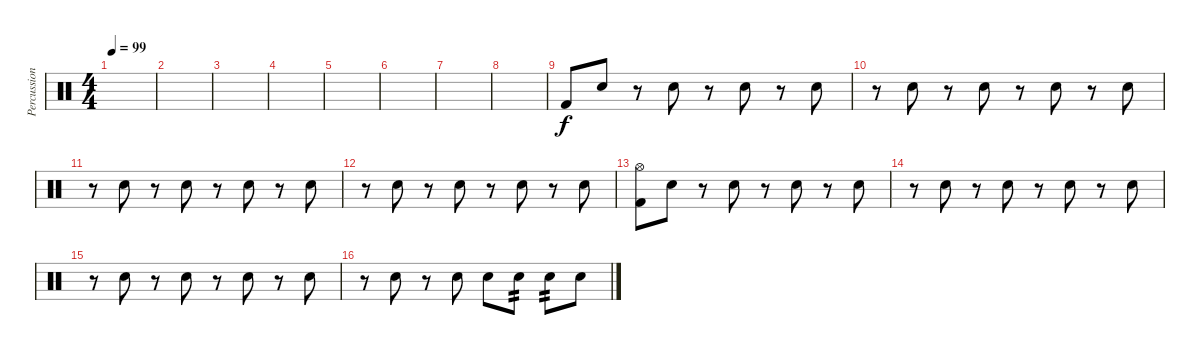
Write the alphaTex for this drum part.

\track ("Percussion" "Percussion") {instrument percussion}
\staff {score}
\articulation defaults
\ts (4 4)
\tempo 99
\clef neutral
\ks c
|
|
|
|
|
|
|
|
"Kick (hit) 2".8 "Electric Snare (hit)".8 r.8 "Electric Snare (hit)".8 r.8 "Electric Snare (hit)".8 r.8 "Electric Snare (hit)".8 |
r.8 "Electric Snare (hit)".8 r.8 "Electric Snare (hit)".8 r.8 "Electric Snare (hit)".8 r.8 "Electric Snare (hit)".8 |
r.8 "Electric Snare (hit)".8 r.8 "Electric Snare (hit)".8 r.8 "Electric Snare (hit)".8 r.8 "Electric Snare (hit)".8 |
r.8 "Electric Snare (hit)".8 r.8 "Electric Snare (hit)".8 r.8 "Electric Snare (hit)".8 r.8 "Electric Snare (hit)".8 |
("Hi-Hat (open)" "Kick (hit) 2").8 "Electric Snare (hit)".8 r.8 "Electric Snare (hit)".8 r.8 "Electric Snare (hit)".8 r.8 "Electric Snare (hit)".8 |
r.8 "Electric Snare (hit)".8 r.8 "Electric Snare (hit)".8 r.8 "Electric Snare (hit)".8 r.8 "Electric Snare (hit)".8 |
r.8 "Electric Snare (hit)".8 r.8 "Electric Snare (hit)".8 r.8 "Electric Snare (hit)".8 r.8 "Electric Snare (hit)".8 |
r.8 "Electric Snare (hit)".8 r.8 "Electric Snare (hit)".8 "Electric Snare (hit)".8 "Electric Snare (hit)".8{tp 2} "Electric Snare (hit)".8{tp 2} "Electric Snare (hit)".8
